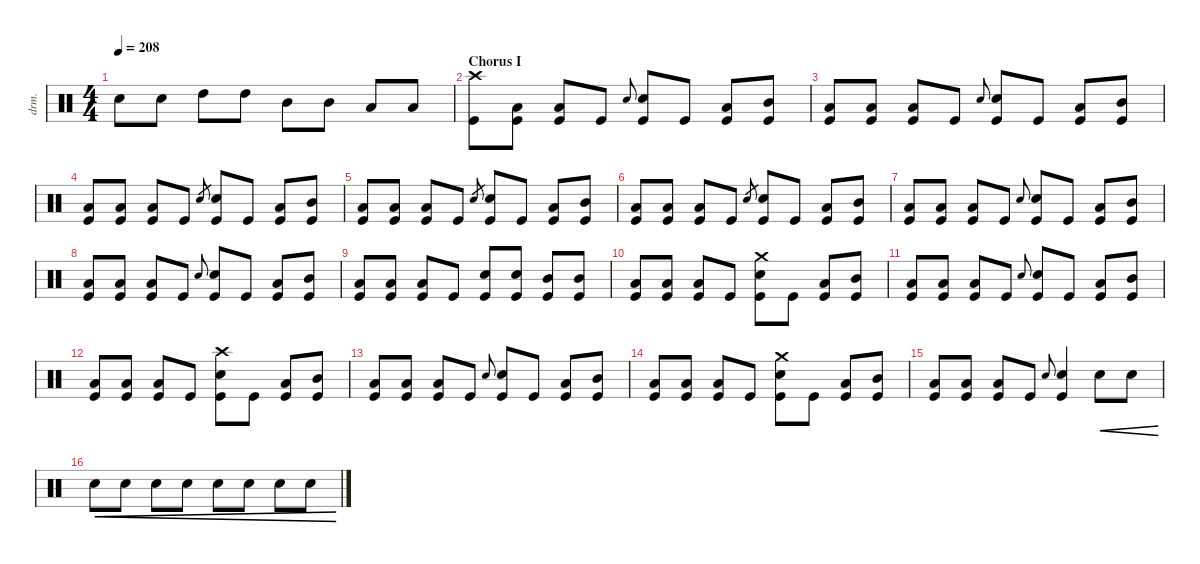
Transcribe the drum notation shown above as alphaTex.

\defaultSystemsLayout 4
\hideDynamics
\bracketExtendMode nobrackets
\otherSystemsTrackNameOrientation horizontal
\track ("Drums" "drm.") {multiBarRest instrument percussion}
\staff
\articulation defaults
\ts (4 4)
\tempo 208
\clef neutral
\ks c "Snare (hit) 2".8{dy f} "Snare (hit) 2".8 "High Tom (hit)".8{dy ff} "High Tom (hit)".8 "Mid Tom (hit)".8 "Mid Tom (hit)".8 "Low Tom (hit)".8 "Low Tom (hit)".8
|
\section ("" "Chorus I")
("Kick (hit)" "Crash high (hit)").8{dy f} ("Kick (hit)" "Low Tom (hit)").8 ("Kick (hit)" "Low Tom (hit)").8 "Kick (hit)".8 "Snare (hit) 2".8{gr onbeat} ("Kick (hit)" "Snare (hit) 2").8 "Kick (hit)".8 ("Kick (hit)" "Low Tom (hit)").8 ("Kick (hit)" "Mid Tom (hit)").8 |
("Kick (hit)" "Low Tom (hit)").8 ("Kick (hit)" "Low Tom (hit)").8 ("Kick (hit)" "Low Tom (hit)").8 "Kick (hit)".8 "Snare (hit) 2".8{gr onbeat} ("Kick (hit)" "Snare (hit) 2").8 "Kick (hit)".8 ("Kick (hit)" "Low Tom (hit)").8 ("Kick (hit)" "Mid Tom (hit)").8 |
("Kick (hit)" "Low Tom (hit)").8 ("Kick (hit)" "Low Tom (hit)").8 ("Kick (hit)" "Low Tom (hit)").8 "Kick (hit)".8 "Snare (hit) 2".8{gr} ("Kick (hit)" "Snare (hit) 2").8 "Kick (hit)".8 ("Kick (hit)" "Low Tom (hit)").8 ("Kick (hit)" "Mid Tom (hit)").8 |
("Kick (hit)" "Low Tom (hit)").8 ("Kick (hit)" "Low Tom (hit)").8 ("Kick (hit)" "Low Tom (hit)").8 "Kick (hit)".8 "Snare (hit) 2".8{gr} ("Kick (hit)" "Snare (hit) 2").8 "Kick (hit)".8 ("Kick (hit)" "Low Tom (hit)").8 ("Kick (hit)" "Mid Tom (hit)").8 |
("Kick (hit)" "Low Tom (hit)").8 ("Kick (hit)" "Low Tom (hit)").8 ("Kick (hit)" "Low Tom (hit)").8 "Kick (hit)".8 "Snare (hit) 2".8{gr} ("Kick (hit)" "Snare (hit) 2").8 "Kick (hit)".8 ("Kick (hit)" "Low Tom (hit)").8 ("Kick (hit)" "Mid Tom (hit)").8 |
("Kick (hit)" "Low Tom (hit)").8 ("Kick (hit)" "Low Tom (hit)").8 ("Kick (hit)" "Low Tom (hit)").8 "Kick (hit)".8 "Snare (hit) 2".8{gr onbeat} ("Kick (hit)" "Snare (hit) 2").8 "Kick (hit)".8 ("Kick (hit)" "Low Tom (hit)").8 ("Kick (hit)" "Mid Tom (hit)").8 |
("Kick (hit)" "Low Tom (hit)").8 ("Kick (hit)" "Low Tom (hit)").8 ("Kick (hit)" "Low Tom (hit)").8 "Kick (hit)".8 "Snare (hit) 2".8{gr onbeat} ("Kick (hit)" "Snare (hit) 2").8 "Kick (hit)".8 ("Kick (hit)" "Low Tom (hit)").8 ("Kick (hit)" "Mid Tom (hit)").8 |
("Kick (hit)" "Low Tom (hit)").8 ("Kick (hit)" "Low Tom (hit)").8 ("Kick (hit)" "Low Tom (hit)").8 "Kick (hit)".8 ("Kick (hit)" "Snare (hit) 2").8 ("Kick (hit)" "Snare (hit) 2").8 ("Kick (hit)" "Mid Tom (hit)").8 ("Kick (hit)" "Mid Tom (hit)").8 |
("Kick (hit)" "Low Tom (hit)").8 ("Kick (hit)" "Low Tom (hit)").8 ("Kick (hit)" "Low Tom (hit)").8 "Kick (hit)".8 ("Kick (hit)" "Snare (hit) 2" "Crash medium (hit)").8 "Kick (hit)".8 ("Kick (hit)" "Low Tom (hit)").8 ("Kick (hit)" "Mid Tom (hit)").8 |
("Kick (hit)" "Low Tom (hit)").8 ("Kick (hit)" "Low Tom (hit)").8 ("Kick (hit)" "Low Tom (hit)").8 "Kick (hit)".8 "Snare (hit) 2".8{gr onbeat} ("Kick (hit)" "Snare (hit) 2").8 "Kick (hit)".8 ("Kick (hit)" "Low Tom (hit)").8 ("Kick (hit)" "Mid Tom (hit)").8 |
("Kick (hit)" "Low Tom (hit)").8 ("Kick (hit)" "Low Tom (hit)").8 ("Kick (hit)" "Low Tom (hit)").8 "Kick (hit)".8 ("Kick (hit)" "Snare (hit) 2" "Crash high (hit)").8 "Kick (hit)".8 ("Kick (hit)" "Low Tom (hit)").8 ("Kick (hit)" "Mid Tom (hit)").8 |
("Kick (hit)" "Low Tom (hit)").8 ("Kick (hit)" "Low Tom (hit)").8 ("Kick (hit)" "Low Tom (hit)").8 "Kick (hit)".8 "Snare (hit) 2".8{gr onbeat} ("Kick (hit)" "Snare (hit) 2").8 "Kick (hit)".8 ("Kick (hit)" "Low Tom (hit)").8 ("Kick (hit)" "Mid Tom (hit)").8 |
("Kick (hit)" "Low Tom (hit)").8 ("Kick (hit)" "Low Tom (hit)").8 ("Kick (hit)" "Low Tom (hit)").8 "Kick (hit)".8 ("Kick (hit)" "Snare (hit) 2" "Crash medium (hit)").8 "Kick (hit)".8 ("Kick (hit)" "Low Tom (hit)").8 ("Kick (hit)" "Mid Tom (hit)").8 |
("Kick (hit)" "Low Tom (hit)").8 ("Kick (hit)" "Low Tom (hit)").8 ("Kick (hit)" "Low Tom (hit)").8 "Kick (hit)".8 "Snare (hit) 2".8{gr onbeat} ("Kick (hit)" "Snare (hit) 2").4 "Snare (hit) 2".8{cre dy p} "Snare (hit) 2".8{cre} |
"Snare (hit) 2".8{cre dy mp} "Snare (hit) 2".8{cre} "Snare (hit) 2".8{cre} "Snare (hit) 2".8{cre} "Snare (hit) 2".8{cre dy mf} "Snare (hit) 2".8{cre} "Snare (hit) 2".8{cre} "Snare (hit) 2".8{cre}
